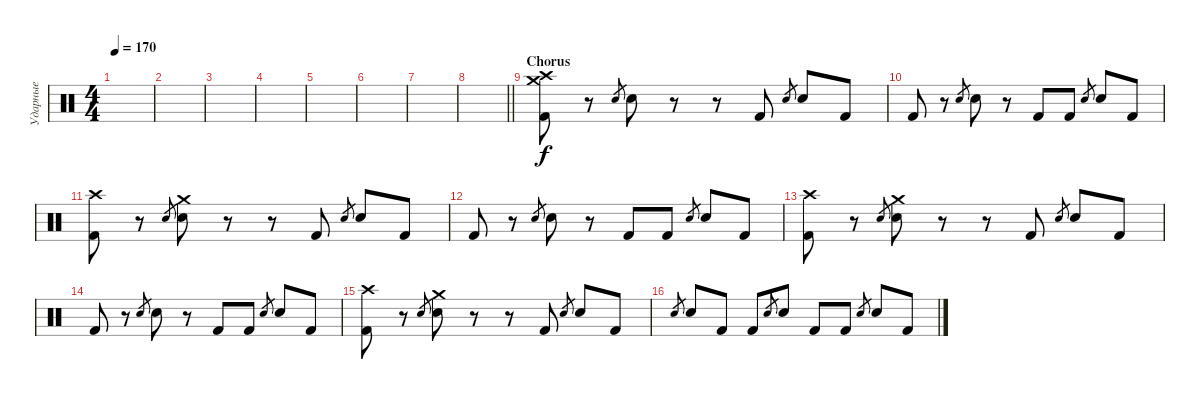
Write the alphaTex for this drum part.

\track ("Ударные" "Ударные") {instrument percussion}
\staff {score}
\articulation defaults
\ts (4 4)
\tempo 170
\clef neutral
\ks c
|
|
|
|
|
|
|
\barLineRight lightlight
|
\section ("" "Chorus")
("Crash high (hit)" "Crash medium (hit)" "Kick (hit) 2").8 r.8 "Electric Snare (hit)".8{gr} "Electric Snare (hit)".8 r.8 r.8 "Kick (hit) 2".8 "Electric Snare (hit)".8{gr} "Electric Snare (hit)".8 "Kick (hit) 2".8 |
"Kick (hit) 2".8 r.8 "Electric Snare (hit)".8{gr} "Electric Snare (hit)".8 r.8 "Kick (hit) 2".8 "Kick (hit) 2".8 "Electric Snare (hit)".8{gr} "Electric Snare (hit)".8 "Kick (hit) 2".8 |
("Crash high (hit)" "Kick (hit) 2").8 r.8 "Electric Snare (hit)".8{gr} ("Crash medium (hit)" "Electric Snare (hit)").8 r.8 r.8 "Kick (hit) 2".8 "Electric Snare (hit)".8{gr} "Electric Snare (hit)".8 "Kick (hit) 2".8 |
"Kick (hit) 2".8 r.8 "Electric Snare (hit)".8{gr} "Electric Snare (hit)".8 r.8 "Kick (hit) 2".8 "Kick (hit) 2".8 "Electric Snare (hit)".8{gr} "Electric Snare (hit)".8 "Kick (hit) 2".8 |
("Crash high (hit)" "Kick (hit) 2").8 r.8 "Electric Snare (hit)".8{gr} ("Crash medium (hit)" "Electric Snare (hit)").8 r.8 r.8 "Kick (hit) 2".8 "Electric Snare (hit)".8{gr} "Electric Snare (hit)".8 "Kick (hit) 2".8 |
"Kick (hit) 2".8 r.8 "Electric Snare (hit)".8{gr} "Electric Snare (hit)".8 r.8 "Kick (hit) 2".8 "Kick (hit) 2".8 "Electric Snare (hit)".8{gr} "Electric Snare (hit)".8 "Kick (hit) 2".8 |
("Crash high (hit)" "Kick (hit) 2").8 r.8 "Electric Snare (hit)".8{gr} ("Crash medium (hit)" "Electric Snare (hit)").8 r.8 r.8 "Kick (hit) 2".8 "Electric Snare (hit)".8{gr} "Electric Snare (hit)".8 "Kick (hit) 2".8 |
"Electric Snare (hit)".8{gr} "Electric Snare (hit)".8 "Kick (hit) 2".8 "Kick (hit) 2".8 "Electric Snare (hit)".8{gr} "Electric Snare (hit)".8 "Kick (hit) 2".8 "Kick (hit) 2".8 "Electric Snare (hit)".8{gr} "Electric Snare (hit)".8 "Kick (hit) 2".8
